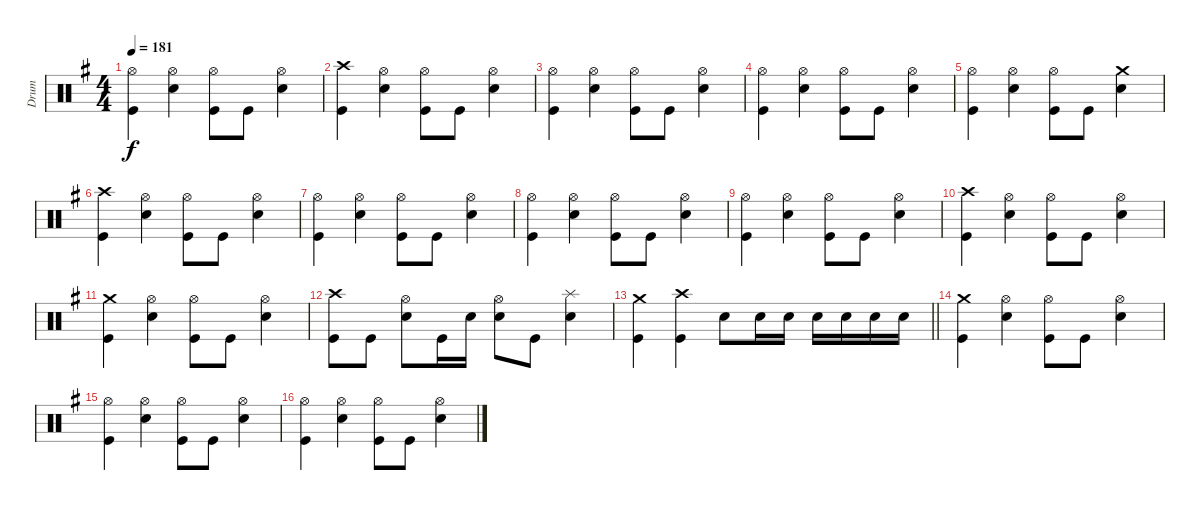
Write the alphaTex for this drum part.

\track ("Drum" "Drum") {instrument percussion}
\staff {score}
\articulation defaults
\ts (4 4)
\tempo 181
\clef neutral
\ks eminor
("Hi-Hat (open)" "Kick (hit)").4{dy f} ("Hi-Hat (open)" "Snare (hit) 2").4 ("Hi-Hat (open)" "Kick (hit)").8 "Kick (hit)".8 ("Hi-Hat (open)" "Snare (hit) 2").4 |
("Crash high (hit)" "Kick (hit)").4 ("Hi-Hat (open)" "Snare (hit) 2").4 ("Hi-Hat (open)" "Kick (hit)").8 "Kick (hit)".8 ("Hi-Hat (open)" "Snare (hit) 2").4 |
("Hi-Hat (open)" "Kick (hit)").4 ("Hi-Hat (open)" "Snare (hit) 2").4 ("Hi-Hat (open)" "Kick (hit)").8 "Kick (hit)".8 ("Hi-Hat (open)" "Snare (hit) 2").4 |
("Hi-Hat (open)" "Kick (hit)").4 ("Hi-Hat (open)" "Snare (hit) 2").4 ("Hi-Hat (open)" "Kick (hit)").8 "Kick (hit)".8 ("Hi-Hat (open)" "Snare (hit) 2").4 |
("Hi-Hat (open)" "Kick (hit)").4 ("Hi-Hat (open)" "Snare (hit) 2").4 ("Hi-Hat (open)" "Kick (hit)").8 "Kick (hit)".8 ("Crash medium (hit)" "Snare (hit) 2").4 |
("Crash high (hit)" "Kick (hit)").4 ("Hi-Hat (open)" "Snare (hit) 2").4 ("Hi-Hat (open)" "Kick (hit)").8 "Kick (hit)".8 ("Hi-Hat (open)" "Snare (hit) 2").4 |
("Hi-Hat (open)" "Kick (hit)").4 ("Hi-Hat (open)" "Snare (hit) 2").4 ("Hi-Hat (open)" "Kick (hit)").8 "Kick (hit)".8 ("Hi-Hat (open)" "Snare (hit) 2").4 |
("Hi-Hat (open)" "Kick (hit)").4 ("Hi-Hat (open)" "Snare (hit) 2").4 ("Hi-Hat (open)" "Kick (hit)").8 "Kick (hit)".8 ("Hi-Hat (open)" "Snare (hit) 2").4 |
("Hi-Hat (open)" "Kick (hit)").4 ("Hi-Hat (open)" "Snare (hit) 2").4 ("Hi-Hat (open)" "Kick (hit)").8 "Kick (hit)".8 ("Hi-Hat (open)" "Snare (hit) 2").4 |
("Crash high (hit)" "Kick (hit)").4 ("Hi-Hat (open)" "Snare (hit) 2").4 ("Hi-Hat (open)" "Kick (hit)").8 "Kick (hit)".8 ("Hi-Hat (open)" "Snare (hit) 2").4 |
("Crash medium (hit)" "Kick (hit)").4 ("Hi-Hat (open)" "Snare (hit) 2").4 ("Hi-Hat (open)" "Kick (hit)").8 "Kick (hit)".8 ("Hi-Hat (open)" "Snare (hit) 2").4 |
("Crash high (hit)" "Kick (hit)").8 "Kick (hit)".8 ("Hi-Hat (open)" "Snare (hit) 2").8 "Kick (hit)".16 "Snare (hit) 2".16 ("Hi-Hat (open)" "Snare (hit) 2").8 "Kick (hit)".8 ("Splash (hit)" "Snare (hit) 2").4 |
\barLineRight lightlight
("Crash medium (hit)" "Kick (hit)").4 ("Crash high (hit)" "Kick (hit)").4 "Snare (hit) 2".8 "Snare (hit) 2".16 "Snare (hit) 2".16 "Snare (hit) 2".16 "Snare (hit) 2".16 "Snare (hit) 2".16 "Snare (hit) 2".16 |
("Crash medium (hit)" "Kick (hit)").4 ("Hi-Hat (open)" "Snare (hit) 2").4 ("Hi-Hat (open)" "Kick (hit)").8 "Kick (hit)".8 ("Hi-Hat (open)" "Snare (hit) 2").4 |
("Hi-Hat (open)" "Kick (hit)").4 ("Hi-Hat (open)" "Snare (hit) 2").4 ("Hi-Hat (open)" "Kick (hit)").8 "Kick (hit)".8 ("Hi-Hat (open)" "Snare (hit) 2").4 |
("Hi-Hat (open)" "Kick (hit)").4 ("Hi-Hat (open)" "Snare (hit) 2").4 ("Hi-Hat (open)" "Kick (hit)").8 "Kick (hit)".8 ("Hi-Hat (open)" "Snare (hit) 2").4
